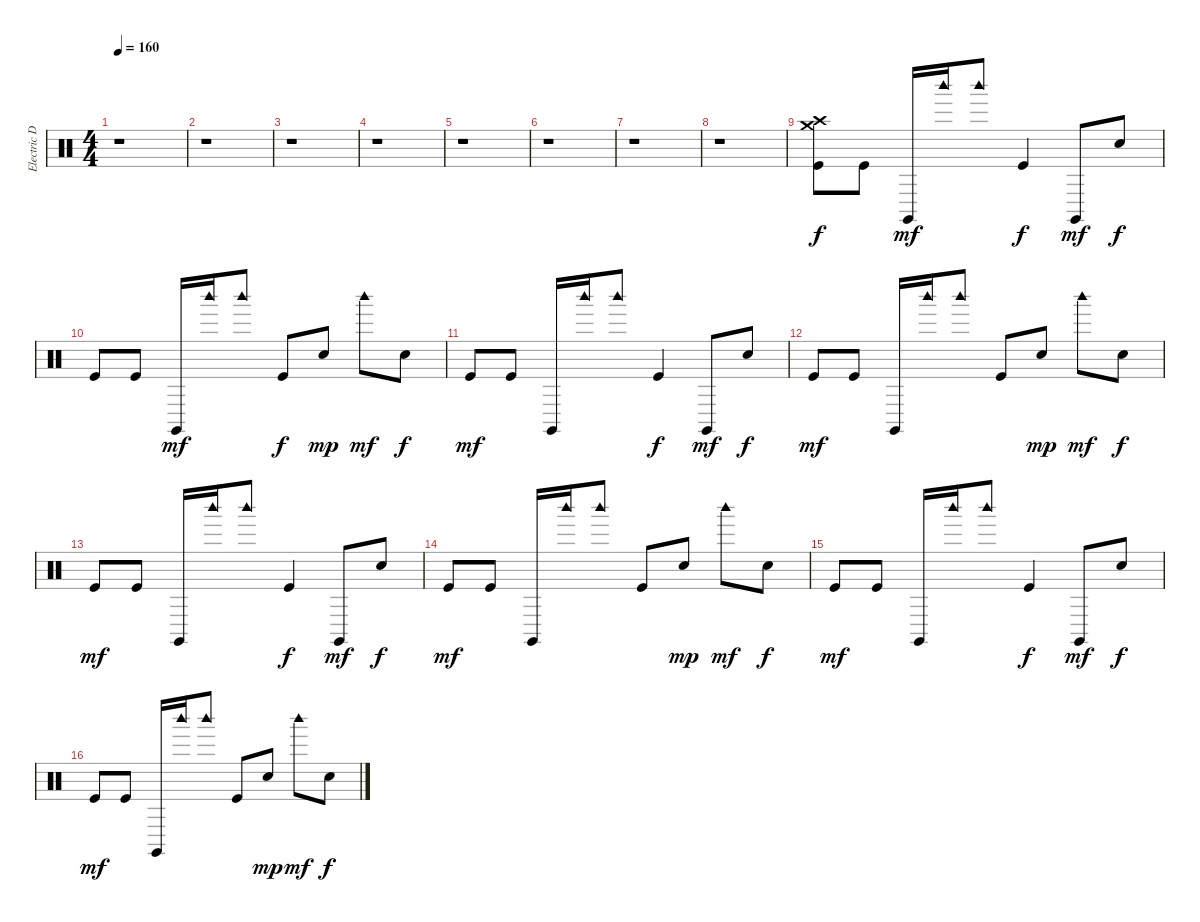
\track ("Electric Drums" "Electric D") {instrument percussion}
\staff {score}
\articulation defaults
\ts (4 4)
\tempo 160
\clef neutral
\ks c
r.1{dy f} |
r.1 |
r.1 |
r.1 |
r.1 |
r.1 |
r.1 |
r.1 |
("Crash medium (hit)" "Crash high (hit)" "Kick (hit)").8{volume 10} "Kick (hit)".8 "Claves (hit)".16{dy mf} "Woodblock high (hit)".16 "Woodblock high (hit)".8 "Kick (hit)".4{dy f} "Claves (hit)".8{dy mf} "Electric Snare (hit)".8{dy f} |
"Kick (hit)".8 "Kick (hit)".8 "Claves (hit)".16{dy mf} "Woodblock high (hit)".16 "Woodblock high (hit)".8 "Kick (hit)".8{dy f} "Electric Snare (hit)".8{dy mp} "Woodblock high (hit)".8{dy mf} "Electric Snare (hit)".8{dy f} |
"Kick (hit)".8{dy mf} "Kick (hit)".8 "Claves (hit)".16 "Woodblock high (hit)".16 "Woodblock high (hit)".8 "Kick (hit)".4{dy f} "Claves (hit)".8{dy mf} "Electric Snare (hit)".8{dy f} |
"Kick (hit)".8{dy mf} "Kick (hit)".8 "Claves (hit)".16 "Woodblock high (hit)".16 "Woodblock high (hit)".8 "Kick (hit)".8 "Electric Snare (hit)".8{dy mp} "Woodblock high (hit)".8{dy mf} "Electric Snare (hit)".8{dy f} |
"Kick (hit)".8{dy mf} "Kick (hit)".8 "Claves (hit)".16 "Woodblock high (hit)".16 "Woodblock high (hit)".8 "Kick (hit)".4{dy f} "Claves (hit)".8{dy mf} "Electric Snare (hit)".8{dy f} |
"Kick (hit)".8{dy mf} "Kick (hit)".8 "Claves (hit)".16 "Woodblock high (hit)".16 "Woodblock high (hit)".8 "Kick (hit)".8 "Electric Snare (hit)".8{dy mp} "Woodblock high (hit)".8{dy mf} "Electric Snare (hit)".8{dy f} |
"Kick (hit)".8{dy mf} "Kick (hit)".8 "Claves (hit)".16 "Woodblock high (hit)".16 "Woodblock high (hit)".8 "Kick (hit)".4{dy f} "Claves (hit)".8{dy mf} "Electric Snare (hit)".8{dy f} |
"Kick (hit)".8{dy mf} "Kick (hit)".8 "Claves (hit)".16 "Woodblock high (hit)".16 "Woodblock high (hit)".8 "Kick (hit)".8 "Electric Snare (hit)".8{dy mp} "Woodblock high (hit)".8{dy mf} "Electric Snare (hit)".8{dy f}
